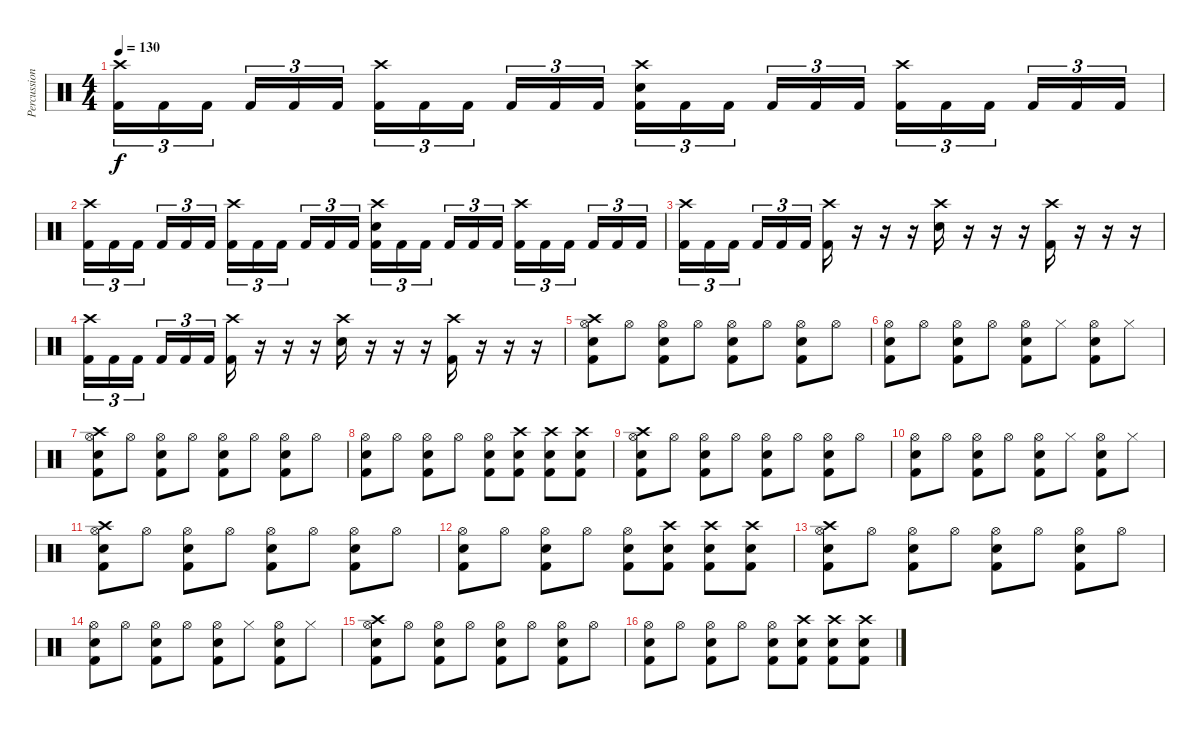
\track ("Percussion" "Percussion") {instrument percussion}
\staff {score}
\articulation defaults
\ts (4 4)
\tempo 130
\clef neutral
\ks c
("Crash high (hit)" "Kick (hit) 2").16{tu (3 2) dy f} "Kick (hit) 2".16{tu (3 2)} "Kick (hit) 2".16{tu (3 2)} "Kick (hit) 2".16{tu (3 2)} "Kick (hit) 2".16{tu (3 2)} "Kick (hit) 2".16{tu (3 2)} ("Crash high (hit)" "Kick (hit) 2").16{tu (3 2)} "Kick (hit) 2".16{tu (3 2)} "Kick (hit) 2".16{tu (3 2)} "Kick (hit) 2".16{tu (3 2)} "Kick (hit) 2".16{tu (3 2)} "Kick (hit) 2".16{tu (3 2)} ("Crash high (hit)" "Electric Snare (hit)" "Kick (hit) 2").16{tu (3 2)} "Kick (hit) 2".16{tu (3 2)} "Kick (hit) 2".16{tu (3 2)} "Kick (hit) 2".16{tu (3 2)} "Kick (hit) 2".16{tu (3 2)} "Kick (hit) 2".16{tu (3 2)} ("Crash high (hit)" "Kick (hit) 2").16{tu (3 2)} "Kick (hit) 2".16{tu (3 2)} "Kick (hit) 2".16{tu (3 2)} "Kick (hit) 2".16{tu (3 2)} "Kick (hit) 2".16{tu (3 2)} "Kick (hit) 2".16{tu (3 2)} |
("Crash high (hit)" "Kick (hit) 2").16{tu (3 2)} "Kick (hit) 2".16{tu (3 2)} "Kick (hit) 2".16{tu (3 2)} "Kick (hit) 2".16{tu (3 2)} "Kick (hit) 2".16{tu (3 2)} "Kick (hit) 2".16{tu (3 2)} ("Crash high (hit)" "Kick (hit) 2").16{tu (3 2)} "Kick (hit) 2".16{tu (3 2)} "Kick (hit) 2".16{tu (3 2)} "Kick (hit) 2".16{tu (3 2)} "Kick (hit) 2".16{tu (3 2)} "Kick (hit) 2".16{tu (3 2)} ("Crash high (hit)" "Electric Snare (hit)" "Kick (hit) 2").16{tu (3 2)} "Kick (hit) 2".16{tu (3 2)} "Kick (hit) 2".16{tu (3 2)} "Kick (hit) 2".16{tu (3 2)} "Kick (hit) 2".16{tu (3 2)} "Kick (hit) 2".16{tu (3 2)} ("Crash high (hit)" "Kick (hit) 2").16{tu (3 2)} "Kick (hit) 2".16{tu (3 2)} "Kick (hit) 2".16{tu (3 2)} "Kick (hit) 2".16{tu (3 2)} "Kick (hit) 2".16{tu (3 2)} "Kick (hit) 2".16{tu (3 2)} |
("Crash high (hit)" "Kick (hit) 2").16{tu (3 2)} "Kick (hit) 2".16{tu (3 2)} "Kick (hit) 2".16{tu (3 2)} "Kick (hit) 2".16{tu (3 2)} "Kick (hit) 2".16{tu (3 2)} "Kick (hit) 2".16{tu (3 2)} ("Crash high (hit)" "Kick (hit) 2").16 r.16 r.16 r.16 ("Crash high (hit)" "Electric Snare (hit)").16 r.16 r.16 r.16 ("Crash high (hit)" "Kick (hit) 2").16 r.16 r.16 r.16 |
("Crash high (hit)" "Kick (hit) 2").16{tu (3 2)} "Kick (hit) 2".16{tu (3 2)} "Kick (hit) 2".16{tu (3 2)} "Kick (hit) 2".16{tu (3 2)} "Kick (hit) 2".16{tu (3 2)} "Kick (hit) 2".16{tu (3 2)} ("Crash high (hit)" "Kick (hit) 2").16 r.16 r.16 r.16 ("Crash high (hit)" "Electric Snare (hit)").16 r.16 r.16 r.16 ("Crash high (hit)" "Kick (hit) 2").16 r.16 r.16 r.16 |
("Hi-Hat (open)" "Crash high (hit)" "Electric Snare (hit)" "Kick (hit) 2").8 "Hi-Hat (open)".8 ("Hi-Hat (open)" "Electric Snare (hit)" "Kick (hit) 2").8 "Hi-Hat (open)".8 ("Hi-Hat (open)" "Electric Snare (hit)" "Kick (hit) 2").8 "Hi-Hat (open)".8 ("Hi-Hat (open)" "Electric Snare (hit)" "Kick (hit) 2").8 "Hi-Hat (open)".8 |
("Hi-Hat (open)" "Electric Snare (hit)" "Kick (hit) 2").8 "Hi-Hat (open)".8 ("Hi-Hat (open)" "Electric Snare (hit)" "Kick (hit) 2").8 "Hi-Hat (open)".8 ("Hi-Hat (open)" "Electric Snare (hit)" "Kick (hit) 2").8 "Hi-Hat (closed)".8 ("Hi-Hat (open)" "Electric Snare (hit)" "Kick (hit) 2").8 "Hi-Hat (closed)".8 |
("Hi-Hat (open)" "Crash high (hit)" "Electric Snare (hit)" "Kick (hit) 2").8 "Hi-Hat (open)".8 ("Hi-Hat (open)" "Electric Snare (hit)" "Kick (hit) 2").8 "Hi-Hat (open)".8 ("Hi-Hat (open)" "Electric Snare (hit)" "Kick (hit) 2").8 "Hi-Hat (open)".8 ("Hi-Hat (open)" "Electric Snare (hit)" "Kick (hit) 2").8 "Hi-Hat (open)".8 |
("Hi-Hat (open)" "Electric Snare (hit)" "Kick (hit) 2").8 "Hi-Hat (open)".8 ("Hi-Hat (open)" "Electric Snare (hit)" "Kick (hit) 2").8 "Hi-Hat (open)".8 ("Hi-Hat (open)" "Electric Snare (hit)" "Kick (hit) 2").8 ("Crash high (hit)" "Electric Snare (hit)" "Kick (hit) 2").8 ("Crash high (hit)" "Electric Snare (hit)" "Kick (hit) 2").8 ("Crash high (hit)" "Electric Snare (hit)" "Kick (hit) 2").8 |
("Hi-Hat (open)" "Crash high (hit)" "Electric Snare (hit)" "Kick (hit) 2").8 "Hi-Hat (open)".8 ("Hi-Hat (open)" "Electric Snare (hit)" "Kick (hit) 2").8 "Hi-Hat (open)".8 ("Hi-Hat (open)" "Electric Snare (hit)" "Kick (hit) 2").8 "Hi-Hat (open)".8 ("Hi-Hat (open)" "Electric Snare (hit)" "Kick (hit) 2").8 "Hi-Hat (open)".8 |
("Hi-Hat (open)" "Electric Snare (hit)" "Kick (hit) 2").8 "Hi-Hat (open)".8 ("Hi-Hat (open)" "Electric Snare (hit)" "Kick (hit) 2").8 "Hi-Hat (open)".8 ("Hi-Hat (open)" "Electric Snare (hit)" "Kick (hit) 2").8 "Hi-Hat (closed)".8 ("Hi-Hat (open)" "Electric Snare (hit)" "Kick (hit) 2").8 "Hi-Hat (closed)".8 |
("Hi-Hat (open)" "Crash high (hit)" "Electric Snare (hit)" "Kick (hit) 2").8 "Hi-Hat (open)".8 ("Hi-Hat (open)" "Electric Snare (hit)" "Kick (hit) 2").8 "Hi-Hat (open)".8 ("Hi-Hat (open)" "Electric Snare (hit)" "Kick (hit) 2").8 "Hi-Hat (open)".8 ("Hi-Hat (open)" "Electric Snare (hit)" "Kick (hit) 2").8 "Hi-Hat (open)".8 |
("Hi-Hat (open)" "Electric Snare (hit)" "Kick (hit) 2").8 "Hi-Hat (open)".8 ("Hi-Hat (open)" "Electric Snare (hit)" "Kick (hit) 2").8 "Hi-Hat (open)".8 ("Hi-Hat (open)" "Electric Snare (hit)" "Kick (hit) 2").8 ("Crash high (hit)" "Electric Snare (hit)" "Kick (hit) 2").8 ("Crash high (hit)" "Electric Snare (hit)" "Kick (hit) 2").8 ("Crash high (hit)" "Electric Snare (hit)" "Kick (hit) 2").8 |
("Hi-Hat (open)" "Crash high (hit)" "Electric Snare (hit)" "Kick (hit) 2").8 "Hi-Hat (open)".8 ("Hi-Hat (open)" "Electric Snare (hit)" "Kick (hit) 2").8 "Hi-Hat (open)".8 ("Hi-Hat (open)" "Electric Snare (hit)" "Kick (hit) 2").8 "Hi-Hat (open)".8 ("Hi-Hat (open)" "Electric Snare (hit)" "Kick (hit) 2").8 "Hi-Hat (open)".8 |
("Hi-Hat (open)" "Electric Snare (hit)" "Kick (hit) 2").8 "Hi-Hat (open)".8 ("Hi-Hat (open)" "Electric Snare (hit)" "Kick (hit) 2").8 "Hi-Hat (open)".8 ("Hi-Hat (open)" "Electric Snare (hit)" "Kick (hit) 2").8 "Hi-Hat (closed)".8 ("Hi-Hat (open)" "Electric Snare (hit)" "Kick (hit) 2").8 "Hi-Hat (closed)".8 |
("Hi-Hat (open)" "Crash high (hit)" "Electric Snare (hit)" "Kick (hit) 2").8 "Hi-Hat (open)".8 ("Hi-Hat (open)" "Electric Snare (hit)" "Kick (hit) 2").8 "Hi-Hat (open)".8 ("Hi-Hat (open)" "Electric Snare (hit)" "Kick (hit) 2").8 "Hi-Hat (open)".8 ("Hi-Hat (open)" "Electric Snare (hit)" "Kick (hit) 2").8 "Hi-Hat (open)".8 |
("Hi-Hat (open)" "Electric Snare (hit)" "Kick (hit) 2").8 "Hi-Hat (open)".8 ("Hi-Hat (open)" "Electric Snare (hit)" "Kick (hit) 2").8 "Hi-Hat (open)".8 ("Hi-Hat (open)" "Electric Snare (hit)" "Kick (hit) 2").8 ("Crash high (hit)" "Electric Snare (hit)" "Kick (hit) 2").8 ("Crash high (hit)" "Electric Snare (hit)" "Kick (hit) 2").8 ("Crash high (hit)" "Electric Snare (hit)" "Kick (hit) 2").8
